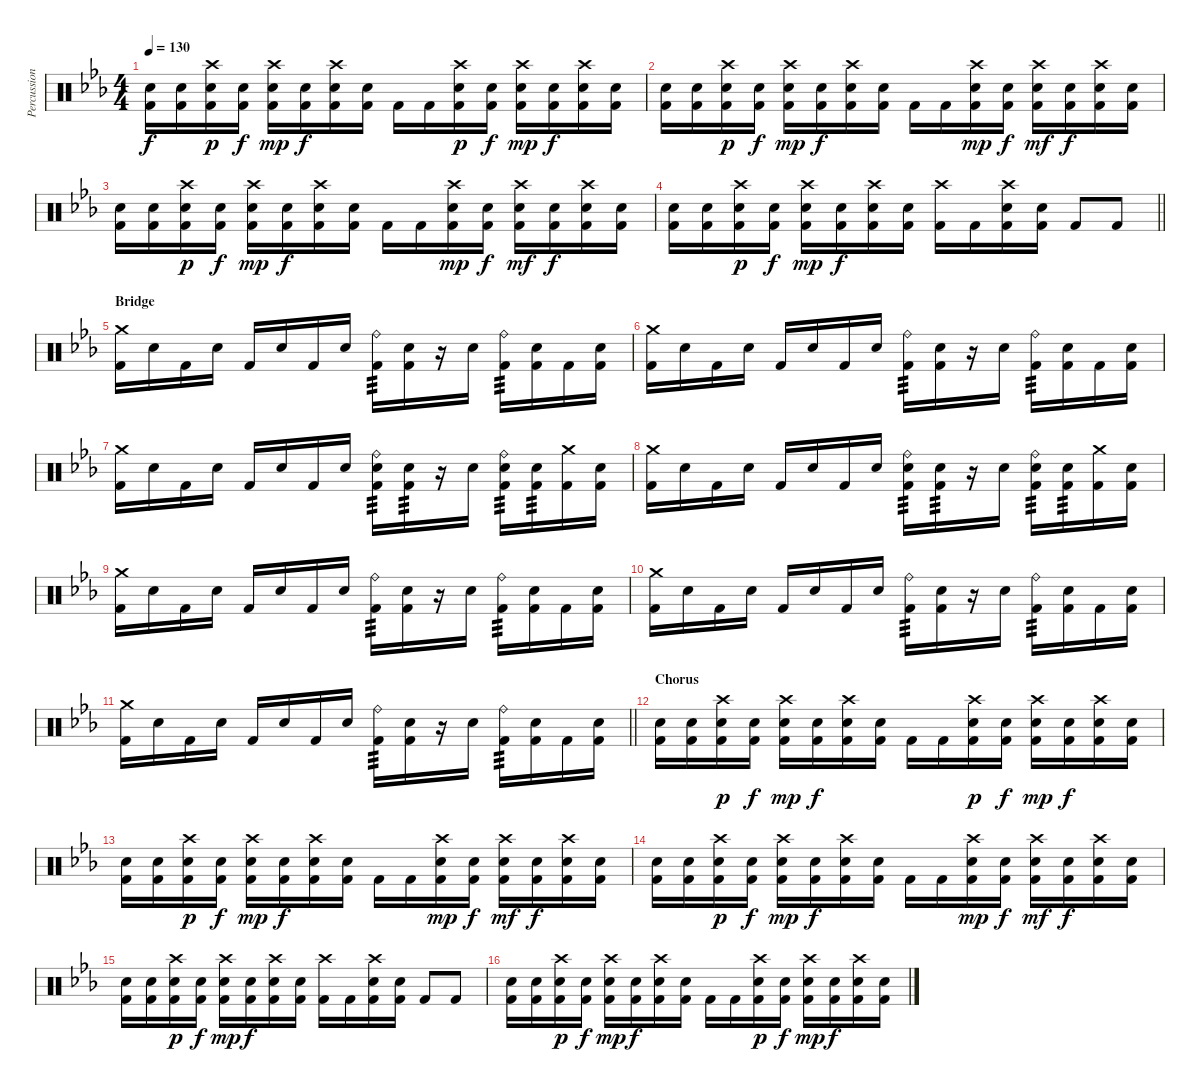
\track ("Percussion" "Percussion") {instrument percussion}
\staff {score}
\articulation defaults
\ts (4 4)
\tempo 130
\clef neutral
\ks eb
("Electric Snare (hit)" "Kick (hit) 2").16{dy f} ("Electric Snare (hit)" "Kick (hit) 2").16 ("Crash high (hit)" "Electric Snare (hit)" "Kick (hit) 2").16{dy p} ("Electric Snare (hit)" "Kick (hit) 2").16{dy f} ("Crash high (hit)" "Electric Snare (hit)" "Kick (hit) 2").16{dy mp} ("Electric Snare (hit)" "Kick (hit) 2").16{dy f} ("Crash high (hit)" "Electric Snare (hit)" "Kick (hit) 2").16 ("Electric Snare (hit)" "Kick (hit) 2").16 "Kick (hit) 2".16 "Kick (hit) 2".16 ("Crash high (hit)" "Electric Snare (hit)" "Kick (hit) 2").16{dy p} ("Electric Snare (hit)" "Kick (hit) 2").16{dy f} ("Crash high (hit)" "Electric Snare (hit)" "Kick (hit) 2").16{dy mp} ("Electric Snare (hit)" "Kick (hit) 2").16{dy f} ("Crash high (hit)" "Electric Snare (hit)" "Kick (hit) 2").16 ("Electric Snare (hit)" "Kick (hit) 2").16 |
("Electric Snare (hit)" "Kick (hit) 2").16 ("Electric Snare (hit)" "Kick (hit) 2").16 ("Crash high (hit)" "Electric Snare (hit)" "Kick (hit) 2").16{dy p} ("Electric Snare (hit)" "Kick (hit) 2").16{dy f} ("Crash high (hit)" "Electric Snare (hit)" "Kick (hit) 2").16{dy mp} ("Electric Snare (hit)" "Kick (hit) 2").16{dy f} ("Crash high (hit)" "Electric Snare (hit)" "Kick (hit) 2").16 ("Electric Snare (hit)" "Kick (hit) 2").16 "Kick (hit) 2".16 "Kick (hit) 2".16 ("Crash high (hit)" "Electric Snare (hit)" "Kick (hit) 2").16{dy mp} ("Electric Snare (hit)" "Kick (hit) 2").16{dy f} ("Crash high (hit)" "Electric Snare (hit)" "Kick (hit) 2").16{dy mf} ("Electric Snare (hit)" "Kick (hit) 2").16{dy f} ("Crash high (hit)" "Electric Snare (hit)" "Kick (hit) 2").16 ("Electric Snare (hit)" "Kick (hit) 2").16 |
("Electric Snare (hit)" "Kick (hit) 2").16 ("Electric Snare (hit)" "Kick (hit) 2").16 ("Crash high (hit)" "Electric Snare (hit)" "Kick (hit) 2").16{dy p} ("Electric Snare (hit)" "Kick (hit) 2").16{dy f} ("Crash high (hit)" "Electric Snare (hit)" "Kick (hit) 2").16{dy mp} ("Electric Snare (hit)" "Kick (hit) 2").16{dy f} ("Crash high (hit)" "Electric Snare (hit)" "Kick (hit) 2").16 ("Electric Snare (hit)" "Kick (hit) 2").16 "Kick (hit) 2".16 "Kick (hit) 2".16 ("Crash high (hit)" "Electric Snare (hit)" "Kick (hit) 2").16{dy mp} ("Electric Snare (hit)" "Kick (hit) 2").16{dy f} ("Crash high (hit)" "Electric Snare (hit)" "Kick (hit) 2").16{dy mf} ("Electric Snare (hit)" "Kick (hit) 2").16{dy f} ("Crash high (hit)" "Electric Snare (hit)" "Kick (hit) 2").16 ("Electric Snare (hit)" "Kick (hit) 2").16 |
\barLineRight lightlight
("Electric Snare (hit)" "Kick (hit) 2").16 ("Electric Snare (hit)" "Kick (hit) 2").16 ("Crash high (hit)" "Electric Snare (hit)" "Kick (hit) 2").16{dy p} ("Electric Snare (hit)" "Kick (hit) 2").16{dy f} ("Crash high (hit)" "Electric Snare (hit)" "Kick (hit) 2").16{dy mp} ("Electric Snare (hit)" "Kick (hit) 2").16{dy f} ("Crash high (hit)" "Electric Snare (hit)" "Kick (hit) 2").16 ("Electric Snare (hit)" "Kick (hit) 2").16 ("Crash high (hit)" "Kick (hit) 2").16 "Kick (hit) 2".16 ("Crash high (hit)" "Electric Snare (hit)" "Kick (hit) 2").16 ("Electric Snare (hit)" "Kick (hit) 2").16 "Kick (hit) 2".8 "Kick (hit) 2".8 |
\section ("" "Bridge")
("Crash medium (hit)" "Kick (hit) 2").16 "Electric Snare (hit)".16 "Kick (hit) 2".16 "Electric Snare (hit)".16 "Kick (hit) 2".16 "Electric Snare (hit)".16 "Kick (hit) 2".16 "Electric Snare (hit)".16 ("Ride (bell)" "Kick (hit) 2").16{tp 3} ("Electric Snare (hit)" "Kick (hit) 2").16 r.16 "Electric Snare (hit)".16 ("Ride (bell)" "Kick (hit) 2").16{tp 3} ("Electric Snare (hit)" "Kick (hit) 2").16 "Kick (hit) 2".16 ("Electric Snare (hit)" "Kick (hit) 2").16 |
("Crash medium (hit)" "Kick (hit) 2").16 "Electric Snare (hit)".16 "Kick (hit) 2".16 "Electric Snare (hit)".16 "Kick (hit) 2".16 "Electric Snare (hit)".16 "Kick (hit) 2".16 "Electric Snare (hit)".16 ("Ride (bell)" "Kick (hit) 2").16{tp 3} ("Electric Snare (hit)" "Kick (hit) 2").16 r.16 "Electric Snare (hit)".16 ("Ride (bell)" "Kick (hit) 2").16{tp 3} ("Electric Snare (hit)" "Kick (hit) 2").16 "Kick (hit) 2".16 ("Electric Snare (hit)" "Kick (hit) 2").16 |
("Crash medium (hit)" "Kick (hit) 2").16 "Electric Snare (hit)".16 "Kick (hit) 2".16 "Electric Snare (hit)".16 "Kick (hit) 2".16 "Electric Snare (hit)".16 "Kick (hit) 2".16 "Electric Snare (hit)".16 ("Ride (bell)" "Electric Snare (hit)" "Kick (hit) 2").16{tp 3} ("Electric Snare (hit)" "Kick (hit) 2").16{tp 3} r.16 "Electric Snare (hit)".16 ("Ride (bell)" "Electric Snare (hit)" "Kick (hit) 2").16{tp 3} ("Electric Snare (hit)" "Kick (hit) 2").16{tp 3} ("Crash medium (hit)" "Kick (hit) 2").16 ("Electric Snare (hit)" "Kick (hit) 2").16 |
("Crash medium (hit)" "Kick (hit) 2").16 "Electric Snare (hit)".16 "Kick (hit) 2".16 "Electric Snare (hit)".16 "Kick (hit) 2".16 "Electric Snare (hit)".16 "Kick (hit) 2".16 "Electric Snare (hit)".16 ("Ride (bell)" "Electric Snare (hit)" "Kick (hit) 2").16{tp 3} ("Electric Snare (hit)" "Kick (hit) 2").16{tp 3} r.16 "Electric Snare (hit)".16 ("Ride (bell)" "Electric Snare (hit)" "Kick (hit) 2").16{tp 3} ("Electric Snare (hit)" "Kick (hit) 2").16{tp 3} ("Crash medium (hit)" "Kick (hit) 2").16 ("Electric Snare (hit)" "Kick (hit) 2").16 |
("Crash medium (hit)" "Kick (hit) 2").16 "Electric Snare (hit)".16 "Kick (hit) 2".16 "Electric Snare (hit)".16 "Kick (hit) 2".16 "Electric Snare (hit)".16 "Kick (hit) 2".16 "Electric Snare (hit)".16 ("Ride (bell)" "Kick (hit) 2").16{tp 3} ("Electric Snare (hit)" "Kick (hit) 2").16 r.16 "Electric Snare (hit)".16 ("Ride (bell)" "Kick (hit) 2").16{tp 3} ("Electric Snare (hit)" "Kick (hit) 2").16 "Kick (hit) 2".16 ("Electric Snare (hit)" "Kick (hit) 2").16 |
("Crash medium (hit)" "Kick (hit) 2").16 "Electric Snare (hit)".16 "Kick (hit) 2".16 "Electric Snare (hit)".16 "Kick (hit) 2".16 "Electric Snare (hit)".16 "Kick (hit) 2".16 "Electric Snare (hit)".16 ("Ride (bell)" "Kick (hit) 2").16{tp 3} ("Electric Snare (hit)" "Kick (hit) 2").16 r.16 "Electric Snare (hit)".16 ("Ride (bell)" "Kick (hit) 2").16{tp 3} ("Electric Snare (hit)" "Kick (hit) 2").16 "Kick (hit) 2".16 ("Electric Snare (hit)" "Kick (hit) 2").16 |
\barLineRight lightlight
("Crash medium (hit)" "Kick (hit) 2").16 "Electric Snare (hit)".16 "Kick (hit) 2".16 "Electric Snare (hit)".16 "Kick (hit) 2".16 "Electric Snare (hit)".16 "Kick (hit) 2".16 "Electric Snare (hit)".16 ("Ride (bell)" "Kick (hit) 2").16{tp 3} ("Electric Snare (hit)" "Kick (hit) 2").16 r.16 "Electric Snare (hit)".16 ("Ride (bell)" "Kick (hit) 2").16{tp 3} ("Electric Snare (hit)" "Kick (hit) 2").16 "Kick (hit) 2".16 ("Electric Snare (hit)" "Kick (hit) 2").16 |
\section ("" "Chorus")
("Electric Snare (hit)" "Kick (hit) 2").16 ("Electric Snare (hit)" "Kick (hit) 2").16 ("Crash high (hit)" "Electric Snare (hit)" "Kick (hit) 2").16{dy p} ("Electric Snare (hit)" "Kick (hit) 2").16{dy f} ("Crash high (hit)" "Electric Snare (hit)" "Kick (hit) 2").16{dy mp} ("Electric Snare (hit)" "Kick (hit) 2").16{dy f} ("Crash high (hit)" "Electric Snare (hit)" "Kick (hit) 2").16 ("Electric Snare (hit)" "Kick (hit) 2").16 "Kick (hit) 2".16 "Kick (hit) 2".16 ("Crash high (hit)" "Electric Snare (hit)" "Kick (hit) 2").16{dy p} ("Electric Snare (hit)" "Kick (hit) 2").16{dy f} ("Crash high (hit)" "Electric Snare (hit)" "Kick (hit) 2").16{dy mp} ("Electric Snare (hit)" "Kick (hit) 2").16{dy f} ("Crash high (hit)" "Electric Snare (hit)" "Kick (hit) 2").16 ("Electric Snare (hit)" "Kick (hit) 2").16 |
("Electric Snare (hit)" "Kick (hit) 2").16 ("Electric Snare (hit)" "Kick (hit) 2").16 ("Crash high (hit)" "Electric Snare (hit)" "Kick (hit) 2").16{dy p} ("Electric Snare (hit)" "Kick (hit) 2").16{dy f} ("Crash high (hit)" "Electric Snare (hit)" "Kick (hit) 2").16{dy mp} ("Electric Snare (hit)" "Kick (hit) 2").16{dy f} ("Crash high (hit)" "Electric Snare (hit)" "Kick (hit) 2").16 ("Electric Snare (hit)" "Kick (hit) 2").16 "Kick (hit) 2".16 "Kick (hit) 2".16 ("Crash high (hit)" "Electric Snare (hit)" "Kick (hit) 2").16{dy mp} ("Electric Snare (hit)" "Kick (hit) 2").16{dy f} ("Crash high (hit)" "Electric Snare (hit)" "Kick (hit) 2").16{dy mf} ("Electric Snare (hit)" "Kick (hit) 2").16{dy f} ("Crash high (hit)" "Electric Snare (hit)" "Kick (hit) 2").16 ("Electric Snare (hit)" "Kick (hit) 2").16 |
("Electric Snare (hit)" "Kick (hit) 2").16 ("Electric Snare (hit)" "Kick (hit) 2").16 ("Crash high (hit)" "Electric Snare (hit)" "Kick (hit) 2").16{dy p} ("Electric Snare (hit)" "Kick (hit) 2").16{dy f} ("Crash high (hit)" "Electric Snare (hit)" "Kick (hit) 2").16{dy mp} ("Electric Snare (hit)" "Kick (hit) 2").16{dy f} ("Crash high (hit)" "Electric Snare (hit)" "Kick (hit) 2").16 ("Electric Snare (hit)" "Kick (hit) 2").16 "Kick (hit) 2".16 "Kick (hit) 2".16 ("Crash high (hit)" "Electric Snare (hit)" "Kick (hit) 2").16{dy mp} ("Electric Snare (hit)" "Kick (hit) 2").16{dy f} ("Crash high (hit)" "Electric Snare (hit)" "Kick (hit) 2").16{dy mf} ("Electric Snare (hit)" "Kick (hit) 2").16{dy f} ("Crash high (hit)" "Electric Snare (hit)" "Kick (hit) 2").16 ("Electric Snare (hit)" "Kick (hit) 2").16 |
("Electric Snare (hit)" "Kick (hit) 2").16 ("Electric Snare (hit)" "Kick (hit) 2").16 ("Crash high (hit)" "Electric Snare (hit)" "Kick (hit) 2").16{dy p} ("Electric Snare (hit)" "Kick (hit) 2").16{dy f} ("Crash high (hit)" "Electric Snare (hit)" "Kick (hit) 2").16{dy mp} ("Electric Snare (hit)" "Kick (hit) 2").16{dy f} ("Crash high (hit)" "Electric Snare (hit)" "Kick (hit) 2").16 ("Electric Snare (hit)" "Kick (hit) 2").16 ("Crash high (hit)" "Kick (hit) 2").16 "Kick (hit) 2".16 ("Crash high (hit)" "Electric Snare (hit)" "Kick (hit) 2").16 ("Electric Snare (hit)" "Kick (hit) 2").16 "Kick (hit) 2".8 "Kick (hit) 2".8 |
("Electric Snare (hit)" "Kick (hit) 2").16 ("Electric Snare (hit)" "Kick (hit) 2").16 ("Crash high (hit)" "Electric Snare (hit)" "Kick (hit) 2").16{dy p} ("Electric Snare (hit)" "Kick (hit) 2").16{dy f} ("Crash high (hit)" "Electric Snare (hit)" "Kick (hit) 2").16{dy mp} ("Electric Snare (hit)" "Kick (hit) 2").16{dy f} ("Crash high (hit)" "Electric Snare (hit)" "Kick (hit) 2").16 ("Electric Snare (hit)" "Kick (hit) 2").16 "Kick (hit) 2".16 "Kick (hit) 2".16 ("Crash high (hit)" "Electric Snare (hit)" "Kick (hit) 2").16{dy p} ("Electric Snare (hit)" "Kick (hit) 2").16{dy f} ("Crash high (hit)" "Electric Snare (hit)" "Kick (hit) 2").16{dy mp} ("Electric Snare (hit)" "Kick (hit) 2").16{dy f} ("Crash high (hit)" "Electric Snare (hit)" "Kick (hit) 2").16 ("Electric Snare (hit)" "Kick (hit) 2").16
